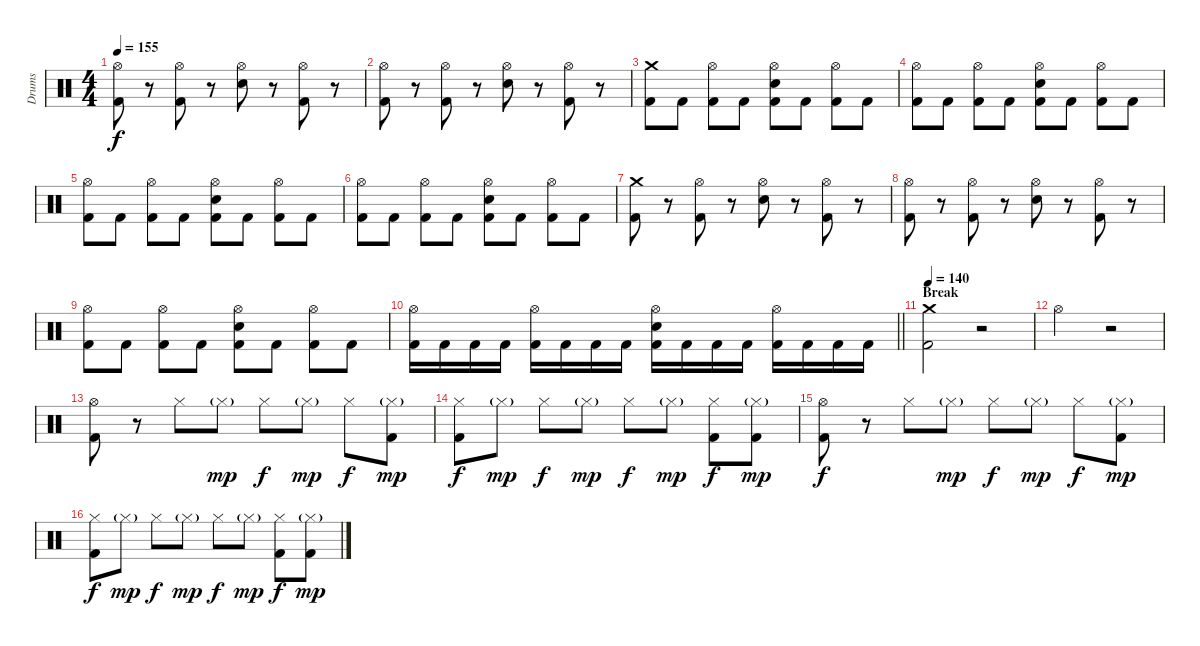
\track ("Drums" "Drums") {instrument percussion}
\staff {score}
\articulation defaults
\ts (4 4)
\tempo 155
\clef neutral
\ks c
("Hi-Hat (open)" "Kick (hit) 2").8{dy f} r.8 ("Hi-Hat (open)" "Kick (hit) 2").8 r.8 ("Hi-Hat (open)" "Electric Snare (hit)").8 r.8 ("Hi-Hat (open)" "Kick (hit) 2").8 r.8 |
("Hi-Hat (open)" "Kick (hit) 2").8 r.8 ("Hi-Hat (open)" "Kick (hit) 2").8 r.8 ("Hi-Hat (open)" "Electric Snare (hit)").8 r.8 ("Hi-Hat (open)" "Kick (hit) 2").8 r.8 |
("Crash medium (hit)" "Kick (hit) 2").8 "Kick (hit) 2".8 ("Hi-Hat (open)" "Kick (hit) 2").8 "Kick (hit) 2".8 ("Hi-Hat (open)" "Electric Snare (hit)" "Kick (hit) 2").8 "Kick (hit) 2".8 ("Hi-Hat (open)" "Kick (hit) 2").8 "Kick (hit) 2".8 |
("Hi-Hat (open)" "Kick (hit) 2").8 "Kick (hit) 2".8 ("Hi-Hat (open)" "Kick (hit) 2").8 "Kick (hit) 2".8 ("Hi-Hat (open)" "Electric Snare (hit)" "Kick (hit) 2").8 "Kick (hit) 2".8 ("Hi-Hat (open)" "Kick (hit) 2").8 "Kick (hit) 2".8 |
("Hi-Hat (open)" "Kick (hit) 2").8 "Kick (hit) 2".8 ("Hi-Hat (open)" "Kick (hit) 2").8 "Kick (hit) 2".8 ("Hi-Hat (open)" "Electric Snare (hit)" "Kick (hit) 2").8 "Kick (hit) 2".8 ("Hi-Hat (open)" "Kick (hit) 2").8 "Kick (hit) 2".8 |
("Hi-Hat (open)" "Kick (hit) 2").8 "Kick (hit) 2".8 ("Hi-Hat (open)" "Kick (hit) 2").8 "Kick (hit) 2".8 ("Hi-Hat (open)" "Electric Snare (hit)" "Kick (hit) 2").8 "Kick (hit) 2".8 ("Hi-Hat (open)" "Kick (hit) 2").8 "Kick (hit) 2".8 |
("Crash medium (hit)" "Kick (hit) 2").8 r.8 ("Hi-Hat (open)" "Kick (hit) 2").8 r.8 ("Hi-Hat (open)" "Electric Snare (hit)").8 r.8 ("Hi-Hat (open)" "Kick (hit) 2").8 r.8 |
("Hi-Hat (open)" "Kick (hit) 2").8 r.8 ("Hi-Hat (open)" "Kick (hit) 2").8 r.8 ("Hi-Hat (open)" "Electric Snare (hit)").8 r.8 ("Hi-Hat (open)" "Kick (hit) 2").8 r.8 |
("Hi-Hat (open)" "Kick (hit) 2").8 "Kick (hit) 2".8 ("Hi-Hat (open)" "Kick (hit) 2").8 "Kick (hit) 2".8 ("Hi-Hat (open)" "Electric Snare (hit)" "Kick (hit) 2").8 "Kick (hit) 2".8 ("Hi-Hat (open)" "Kick (hit) 2").8 "Kick (hit) 2".8 |
\barLineRight lightlight
("Hi-Hat (open)" "Kick (hit) 2").16 "Kick (hit) 2".16 "Kick (hit) 2".16 "Kick (hit) 2".16 ("Hi-Hat (open)" "Kick (hit) 2").16 "Kick (hit) 2".16 "Kick (hit) 2".16 "Kick (hit) 2".16 ("Hi-Hat (open)" "Electric Snare (hit)" "Kick (hit) 2").16 "Kick (hit) 2".16 "Kick (hit) 2".16 "Kick (hit) 2".16 ("Hi-Hat (open)" "Kick (hit) 2").16 "Kick (hit) 2".16 "Kick (hit) 2".16 "Kick (hit) 2".16 |
\section ("" "Break")
\tempo 140
("Crash medium (hit)" "Kick (hit) 2").2 r.2 |
"Hi-Hat (open)".2 r.2 |
("Hi-Hat (open)" "Kick (hit) 2").8 r.8 "Hi-Hat (closed)".8 "Hi-Hat (closed)"{g}.8{dy mp} "Hi-Hat (closed)".8{dy f} "Hi-Hat (closed)"{g}.8{dy mp} "Hi-Hat (closed)".8{dy f} ("Hi-Hat (closed)"{g} "Kick (hit) 2").8{dy mp} |
("Hi-Hat (closed)" "Kick (hit) 2").8{dy f} "Hi-Hat (closed)"{g}.8{dy mp} "Hi-Hat (closed)".8{dy f} "Hi-Hat (closed)"{g}.8{dy mp} "Hi-Hat (closed)".8{dy f} "Hi-Hat (closed)"{g}.8{dy mp} ("Hi-Hat (closed)" "Kick (hit) 2").8{dy f} ("Hi-Hat (closed)"{g} "Kick (hit) 2").8{dy mp} |
("Hi-Hat (open)" "Kick (hit) 2").8{dy f} r.8 "Hi-Hat (closed)".8 "Hi-Hat (closed)"{g}.8{dy mp} "Hi-Hat (closed)".8{dy f} "Hi-Hat (closed)"{g}.8{dy mp} "Hi-Hat (closed)".8{dy f} ("Hi-Hat (closed)"{g} "Kick (hit) 2").8{dy mp} |
("Hi-Hat (closed)" "Kick (hit) 2").8{dy f} "Hi-Hat (closed)"{g}.8{dy mp} "Hi-Hat (closed)".8{dy f} "Hi-Hat (closed)"{g}.8{dy mp} "Hi-Hat (closed)".8{dy f} "Hi-Hat (closed)"{g}.8{dy mp} ("Hi-Hat (closed)" "Kick (hit) 2").8{dy f} ("Hi-Hat (closed)"{g} "Kick (hit) 2").8{dy mp}
